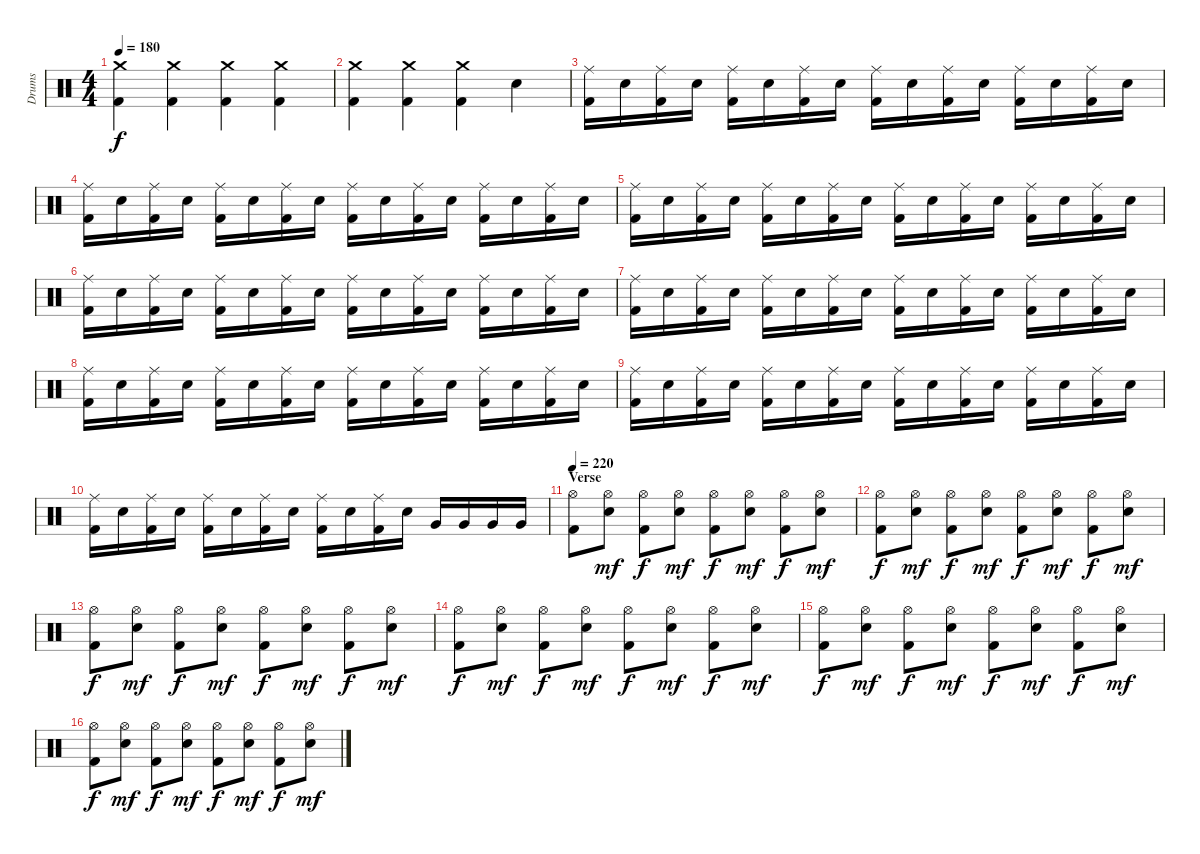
\track ("Drums" "Drums") {instrument percussion}
\staff {score}
\articulation defaults
\ts (4 4)
\tempo 180
\clef neutral
\ks c
("Crash medium (hit)" "Kick (hit) 2").4{dy f} ("Crash medium (hit)" "Kick (hit) 2").4 ("Crash medium (hit)" "Kick (hit) 2").4 ("Crash medium (hit)" "Kick (hit) 2").4 |
("Crash medium (hit)" "Kick (hit) 2").4 ("Crash medium (hit)" "Kick (hit) 2").4 ("Crash medium (hit)" "Kick (hit) 2").4 "Snare (hit) 2".4 |
("Ride (middle)" "Kick (hit) 2").16 "Snare (hit) 2".16 ("Ride (middle)" "Kick (hit) 2").16 "Snare (hit) 2".16 ("Ride (middle)" "Kick (hit) 2").16 "Snare (hit) 2".16 ("Ride (middle)" "Kick (hit) 2").16 "Snare (hit) 2".16 ("Ride (middle)" "Kick (hit) 2").16 "Snare (hit) 2".16 ("Ride (middle)" "Kick (hit) 2").16 "Snare (hit) 2".16 ("Ride (middle)" "Kick (hit) 2").16 "Snare (hit) 2".16 ("Ride (middle)" "Kick (hit) 2").16 "Snare (hit) 2".16 |
("Ride (middle)" "Kick (hit) 2").16 "Snare (hit) 2".16 ("Ride (middle)" "Kick (hit) 2").16 "Snare (hit) 2".16 ("Ride (middle)" "Kick (hit) 2").16 "Snare (hit) 2".16 ("Ride (middle)" "Kick (hit) 2").16 "Snare (hit) 2".16 ("Ride (middle)" "Kick (hit) 2").16 "Snare (hit) 2".16 ("Ride (middle)" "Kick (hit) 2").16 "Snare (hit) 2".16 ("Ride (middle)" "Kick (hit) 2").16 "Snare (hit) 2".16 ("Ride (middle)" "Kick (hit) 2").16 "Snare (hit) 2".16 |
("Ride (middle)" "Kick (hit) 2").16 "Snare (hit) 2".16 ("Ride (middle)" "Kick (hit) 2").16 "Snare (hit) 2".16 ("Ride (middle)" "Kick (hit) 2").16 "Snare (hit) 2".16 ("Ride (middle)" "Kick (hit) 2").16 "Snare (hit) 2".16 ("Ride (middle)" "Kick (hit) 2").16 "Snare (hit) 2".16 ("Ride (middle)" "Kick (hit) 2").16 "Snare (hit) 2".16 ("Ride (middle)" "Kick (hit) 2").16 "Snare (hit) 2".16 ("Ride (middle)" "Kick (hit) 2").16 "Snare (hit) 2".16 |
("Ride (middle)" "Kick (hit) 2").16 "Snare (hit) 2".16 ("Ride (middle)" "Kick (hit) 2").16 "Snare (hit) 2".16 ("Ride (middle)" "Kick (hit) 2").16 "Snare (hit) 2".16 ("Ride (middle)" "Kick (hit) 2").16 "Snare (hit) 2".16 ("Ride (middle)" "Kick (hit) 2").16 "Snare (hit) 2".16 ("Ride (middle)" "Kick (hit) 2").16 "Snare (hit) 2".16 ("Ride (middle)" "Kick (hit) 2").16 "Snare (hit) 2".16 ("Ride (middle)" "Kick (hit) 2").16 "Snare (hit) 2".16 |
("Ride (middle)" "Kick (hit) 2").16 "Snare (hit) 2".16 ("Ride (middle)" "Kick (hit) 2").16 "Snare (hit) 2".16 ("Ride (middle)" "Kick (hit) 2").16 "Snare (hit) 2".16 ("Ride (middle)" "Kick (hit) 2").16 "Snare (hit) 2".16 ("Ride (middle)" "Kick (hit) 2").16 "Snare (hit) 2".16 ("Ride (middle)" "Kick (hit) 2").16 "Snare (hit) 2".16 ("Ride (middle)" "Kick (hit) 2").16 "Snare (hit) 2".16 ("Ride (middle)" "Kick (hit) 2").16 "Snare (hit) 2".16 |
("Ride (middle)" "Kick (hit) 2").16 "Snare (hit) 2".16 ("Ride (middle)" "Kick (hit) 2").16 "Snare (hit) 2".16 ("Ride (middle)" "Kick (hit) 2").16 "Snare (hit) 2".16 ("Ride (middle)" "Kick (hit) 2").16 "Snare (hit) 2".16 ("Ride (middle)" "Kick (hit) 2").16 "Snare (hit) 2".16 ("Ride (middle)" "Kick (hit) 2").16 "Snare (hit) 2".16 ("Ride (middle)" "Kick (hit) 2").16 "Snare (hit) 2".16 ("Ride (middle)" "Kick (hit) 2").16 "Snare (hit) 2".16 |
("Ride (middle)" "Kick (hit) 2").16 "Snare (hit) 2".16 ("Ride (middle)" "Kick (hit) 2").16 "Snare (hit) 2".16 ("Ride (middle)" "Kick (hit) 2").16 "Snare (hit) 2".16 ("Ride (middle)" "Kick (hit) 2").16 "Snare (hit) 2".16 ("Ride (middle)" "Kick (hit) 2").16 "Snare (hit) 2".16 ("Ride (middle)" "Kick (hit) 2").16 "Snare (hit) 2".16 ("Ride (middle)" "Kick (hit) 2").16 "Snare (hit) 2".16 ("Ride (middle)" "Kick (hit) 2").16 "Snare (hit) 2".16 |
("Ride (middle)" "Kick (hit) 2").16 "Snare (hit) 2".16 ("Ride (middle)" "Kick (hit) 2").16 "Snare (hit) 2".16 ("Ride (middle)" "Kick (hit) 2").16 "Snare (hit) 2".16 ("Ride (middle)" "Kick (hit) 2").16 "Snare (hit) 2".16 ("Ride (middle)" "Kick (hit) 2").16 "Snare (hit) 2".16 ("Ride (middle)" "Kick (hit) 2").16 "Snare (hit) 2".16 "Very Low Tom (hit)".16 "Very Low Tom (hit)".16 "Very Low Tom (hit)".16 "Very Low Tom (hit)".16 |
\section ("" "Verse")
\tempo 220
("Hi-Hat (open)" "Kick (hit) 2").8 ("Hi-Hat (open)" "Snare (hit) 2").8{dy mf} ("Hi-Hat (open)" "Kick (hit) 2").8{dy f} ("Hi-Hat (open)" "Snare (hit) 2").8{dy mf} ("Hi-Hat (open)" "Kick (hit) 2").8{dy f} ("Hi-Hat (open)" "Snare (hit) 2").8{dy mf} ("Hi-Hat (open)" "Kick (hit) 2").8{dy f} ("Hi-Hat (open)" "Snare (hit) 2").8{dy mf} |
("Hi-Hat (open)" "Kick (hit) 2").8{dy f} ("Hi-Hat (open)" "Snare (hit) 2").8{dy mf} ("Hi-Hat (open)" "Kick (hit) 2").8{dy f} ("Hi-Hat (open)" "Snare (hit) 2").8{dy mf} ("Hi-Hat (open)" "Kick (hit) 2").8{dy f} ("Hi-Hat (open)" "Snare (hit) 2").8{dy mf} ("Hi-Hat (open)" "Kick (hit) 2").8{dy f} ("Hi-Hat (open)" "Snare (hit) 2").8{dy mf} |
("Hi-Hat (open)" "Kick (hit) 2").8{dy f} ("Hi-Hat (open)" "Snare (hit) 2").8{dy mf} ("Hi-Hat (open)" "Kick (hit) 2").8{dy f} ("Hi-Hat (open)" "Snare (hit) 2").8{dy mf} ("Hi-Hat (open)" "Kick (hit) 2").8{dy f} ("Hi-Hat (open)" "Snare (hit) 2").8{dy mf} ("Hi-Hat (open)" "Kick (hit) 2").8{dy f} ("Hi-Hat (open)" "Snare (hit) 2").8{dy mf} |
("Hi-Hat (open)" "Kick (hit) 2").8{dy f} ("Hi-Hat (open)" "Snare (hit) 2").8{dy mf} ("Hi-Hat (open)" "Kick (hit) 2").8{dy f} ("Hi-Hat (open)" "Snare (hit) 2").8{dy mf} ("Hi-Hat (open)" "Kick (hit) 2").8{dy f} ("Hi-Hat (open)" "Snare (hit) 2").8{dy mf} ("Hi-Hat (open)" "Kick (hit) 2").8{dy f} ("Hi-Hat (open)" "Snare (hit) 2").8{dy mf} |
("Hi-Hat (open)" "Kick (hit) 2").8{dy f} ("Hi-Hat (open)" "Snare (hit) 2").8{dy mf} ("Hi-Hat (open)" "Kick (hit) 2").8{dy f} ("Hi-Hat (open)" "Snare (hit) 2").8{dy mf} ("Hi-Hat (open)" "Kick (hit) 2").8{dy f} ("Hi-Hat (open)" "Snare (hit) 2").8{dy mf} ("Hi-Hat (open)" "Kick (hit) 2").8{dy f} ("Hi-Hat (open)" "Snare (hit) 2").8{dy mf} |
("Hi-Hat (open)" "Kick (hit) 2").8{dy f} ("Hi-Hat (open)" "Snare (hit) 2").8{dy mf} ("Hi-Hat (open)" "Kick (hit) 2").8{dy f} ("Hi-Hat (open)" "Snare (hit) 2").8{dy mf} ("Hi-Hat (open)" "Kick (hit) 2").8{dy f} ("Hi-Hat (open)" "Snare (hit) 2").8{dy mf} ("Hi-Hat (open)" "Kick (hit) 2").8{dy f} ("Hi-Hat (open)" "Snare (hit) 2").8{dy mf}
